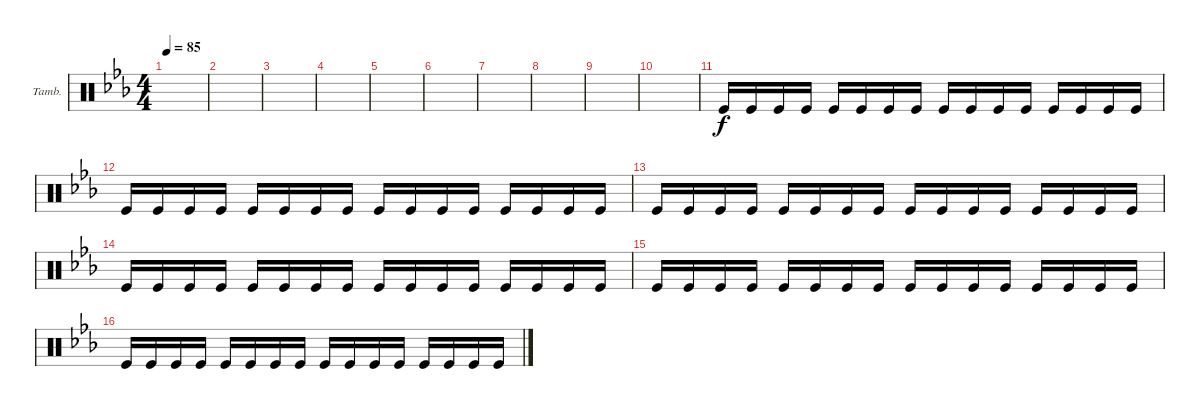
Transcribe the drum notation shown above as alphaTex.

\defaultSystemsLayout 4
\bracketExtendMode groupsimilarinstruments
\firstSystemTrackNameOrientation horizontal
\otherSystemsTrackNameOrientation horizontal
\track ("Tambourine" "Tamb.") {instrument percussion}
\staff {score}
\articulation defaults
\ts (4 4)
\tempo 85
\clef neutral
\ks eb
|
|
|
|
\scale
0.255131 |
\scale
0.258535 |
\scale
0.176557 |
\scale
0.309956 |
|
|
"Kick (hit)".16 "Kick (hit)".16 "Kick (hit)".16 "Kick (hit)".16 "Kick (hit)".16 "Kick (hit)".16 "Kick (hit)".16 "Kick (hit)".16 "Kick (hit)".16 "Kick (hit)".16 "Kick (hit)".16 "Kick (hit)".16 "Kick (hit)".16 "Kick (hit)".16 "Kick (hit)".16 "Kick (hit)".16 |
"Kick (hit)".16 "Kick (hit)".16 "Kick (hit)".16 "Kick (hit)".16 "Kick (hit)".16 "Kick (hit)".16 "Kick (hit)".16 "Kick (hit)".16 "Kick (hit)".16 "Kick (hit)".16 "Kick (hit)".16 "Kick (hit)".16 "Kick (hit)".16 "Kick (hit)".16 "Kick (hit)".16 "Kick (hit)".16 |
"Kick (hit)".16 "Kick (hit)".16 "Kick (hit)".16 "Kick (hit)".16 "Kick (hit)".16 "Kick (hit)".16 "Kick (hit)".16 "Kick (hit)".16 "Kick (hit)".16 "Kick (hit)".16 "Kick (hit)".16 "Kick (hit)".16 "Kick (hit)".16 "Kick (hit)".16 "Kick (hit)".16 "Kick (hit)".16 |
"Kick (hit)".16 "Kick (hit)".16 "Kick (hit)".16 "Kick (hit)".16 "Kick (hit)".16 "Kick (hit)".16 "Kick (hit)".16 "Kick (hit)".16 "Kick (hit)".16 "Kick (hit)".16 "Kick (hit)".16 "Kick (hit)".16 "Kick (hit)".16 "Kick (hit)".16 "Kick (hit)".16 "Kick (hit)".16 |
"Kick (hit)".16 "Kick (hit)".16 "Kick (hit)".16 "Kick (hit)".16 "Kick (hit)".16 "Kick (hit)".16 "Kick (hit)".16 "Kick (hit)".16 "Kick (hit)".16 "Kick (hit)".16 "Kick (hit)".16 "Kick (hit)".16 "Kick (hit)".16 "Kick (hit)".16 "Kick (hit)".16 "Kick (hit)".16 |
"Kick (hit)".16 "Kick (hit)".16 "Kick (hit)".16 "Kick (hit)".16 "Kick (hit)".16 "Kick (hit)".16 "Kick (hit)".16 "Kick (hit)".16 "Kick (hit)".16 "Kick (hit)".16 "Kick (hit)".16 "Kick (hit)".16 "Kick (hit)".16 "Kick (hit)".16 "Kick (hit)".16 "Kick (hit)".16
